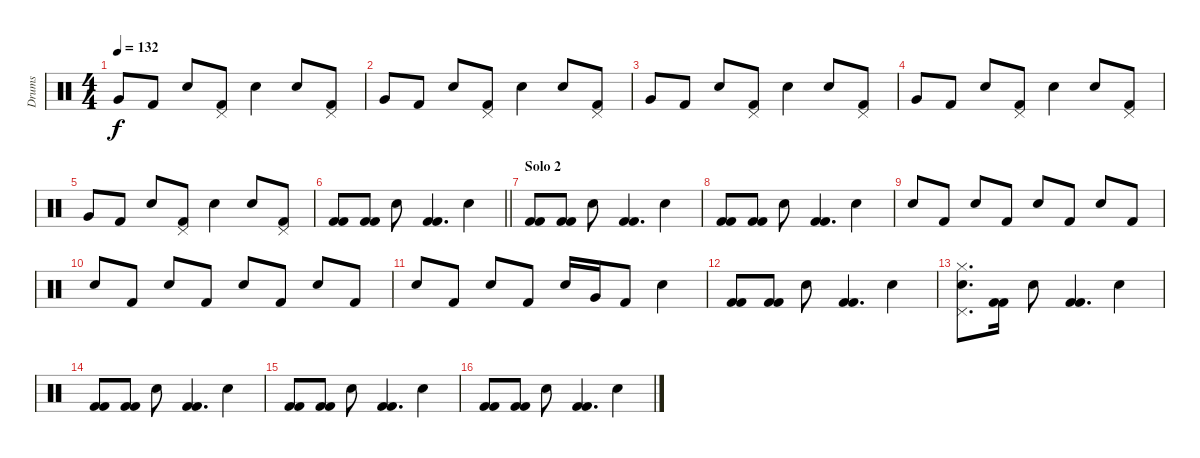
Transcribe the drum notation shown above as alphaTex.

\track ("Drums" "Drums") {instrument percussion}
\staff {score}
\articulation defaults
\ts (4 4)
\tempo 132
\clef neutral
\ks c "Very Low Tom (hit)".8{dy f} "Kick (hit) 2".8 "Snare (hit) 2".8
("Pedal Hi-Hat (hit)" "Kick (hit) 2").8 "Snare (hit) 2".4 "Snare (hit) 2".8 ("Pedal Hi-Hat (hit)" "Kick (hit) 2").8 |
"Very Low Tom (hit)".8 "Kick (hit) 2".8 "Snare (hit) 2".8 ("Pedal Hi-Hat (hit)" "Kick (hit) 2").8 "Snare (hit) 2".4 "Snare (hit) 2".8 ("Pedal Hi-Hat (hit)" "Kick (hit) 2").8 |
"Very Low Tom (hit)".8 "Kick (hit) 2".8 "Snare (hit) 2".8 ("Pedal Hi-Hat (hit)" "Kick (hit) 2").8 "Snare (hit) 2".4 "Snare (hit) 2".8 ("Pedal Hi-Hat (hit)" "Kick (hit) 2").8 |
"Very Low Tom (hit)".8 "Kick (hit) 2".8 "Snare (hit) 2".8 ("Pedal Hi-Hat (hit)" "Kick (hit) 2").8 "Snare (hit) 2".4 "Snare (hit) 2".8 ("Pedal Hi-Hat (hit)" "Kick (hit) 2").8 |
"Very Low Tom (hit)".8 "Kick (hit) 2".8 "Snare (hit) 2".8 ("Pedal Hi-Hat (hit)" "Kick (hit) 2").8 "Snare (hit) 2".4 "Snare (hit) 2".8 ("Pedal Hi-Hat (hit)" "Kick (hit) 2").8 |
\barLineRight lightlight
("Kick (hit) 2" "Kick (hit) 2").8 ("Kick (hit) 2" "Kick (hit) 2").8 "Snare (hit) 2".8 ("Kick (hit) 2" "Kick (hit) 2").4{d} "Snare (hit) 2".4 |
\section ("" "Solo 2")
("Kick (hit) 2" "Kick (hit) 2").8 ("Kick (hit) 2" "Kick (hit) 2").8 "Snare (hit) 2".8 ("Kick (hit) 2" "Kick (hit) 2").4{d} "Snare (hit) 2".4 |
("Kick (hit) 2" "Kick (hit) 2").8 ("Kick (hit) 2" "Kick (hit) 2").8 "Snare (hit) 2".8 ("Kick (hit) 2" "Kick (hit) 2").4{d} "Snare (hit) 2".4 |
"Snare (hit) 2".8 "Kick (hit) 2".8 "Snare (hit) 2".8 "Kick (hit) 2".8 "Snare (hit) 2".8 "Kick (hit) 2".8 "Snare (hit) 2".8 "Kick (hit) 2".8 |
"Snare (hit) 2".8 "Kick (hit) 2".8 "Snare (hit) 2".8 "Kick (hit) 2".8 "Snare (hit) 2".8 "Kick (hit) 2".8 "Snare (hit) 2".8 "Kick (hit) 2".8 |
"Snare (hit) 2".8 "Kick (hit) 2".8 "Snare (hit) 2".8 "Kick (hit) 2".8 "Electric Snare (hit)".16 "Very Low Tom (hit)".16 "Kick (hit) 2".8 "Snare (hit) 2".4 |
("Kick (hit) 2" "Kick (hit) 2").8 ("Kick (hit) 2" "Kick (hit) 2").8 "Snare (hit) 2".8 ("Kick (hit) 2" "Kick (hit) 2").4{d} "Snare (hit) 2".4 |
("Snare (hit) 2" "Hi-Hat (closed)" "Pedal Hi-Hat (hit)").8{d} ("Kick (hit) 2" "Kick (hit) 2").16 "Snare (hit) 2".8 ("Kick (hit) 2" "Kick (hit) 2").4{d} "Snare (hit) 2".4 |
("Kick (hit) 2" "Kick (hit) 2").8 ("Kick (hit) 2" "Kick (hit) 2").8 "Snare (hit) 2".8 ("Kick (hit) 2" "Kick (hit) 2").4{d} "Snare (hit) 2".4 |
("Kick (hit) 2" "Kick (hit) 2").8 ("Kick (hit) 2" "Kick (hit) 2").8 "Snare (hit) 2".8 ("Kick (hit) 2" "Kick (hit) 2").4{d} "Snare (hit) 2".4 |
("Kick (hit) 2" "Kick (hit) 2").8 ("Kick (hit) 2" "Kick (hit) 2").8 "Snare (hit) 2".8 ("Kick (hit) 2" "Kick (hit) 2").4{d} "Snare (hit) 2".4
